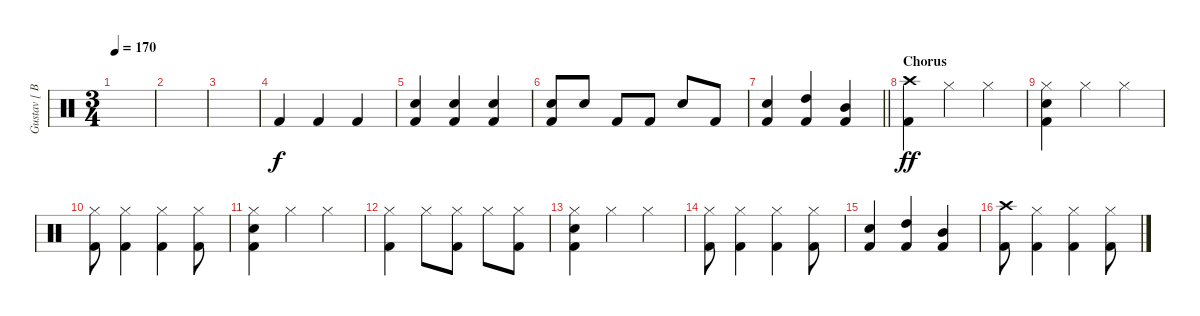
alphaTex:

\track ("Gustav [ Batterie ]" "Gustav [ B") {instrument percussion}
\staff {score}
\articulation defaults
\ts (3 4)
\tempo 170
\clef neutral
\ks c
|
|
|
"Kick (hit) 2".4{dy f volume 16} "Kick (hit) 2".4 "Kick (hit) 2".4 |
("Snare (hit) 2" "Kick (hit) 2").4 ("Snare (hit) 2" "Kick (hit) 2").4 ("Snare (hit) 2" "Kick (hit) 2").4 |
("Snare (hit) 2" "Kick (hit) 2").8 "Snare (hit) 2".8 "Kick (hit) 2".8 "Kick (hit) 2".8 "Snare (hit) 2".8 "Kick (hit) 2".8 |
\barLineRight lightlight
("Snare (hit) 2" "Kick (hit) 2").4 ("High Tom (hit)" "Kick (hit) 2").4 ("Mid Tom (hit)" "Kick (hit) 2").4 |
\section ("" "Chorus")
("Crash high (hit)" "Kick (hit) 2").4{dy ff volume 16} "Hi-Hat (closed)".4 "Hi-Hat (closed)".4 |
("Hi-Hat (closed)" "Snare (hit) 2" "Kick (hit) 2").4 "Hi-Hat (closed)".4 "Hi-Hat (closed)".4 |
("Hi-Hat (closed)" "Kick (hit) 2").8 ("Hi-Hat (closed)" "Kick (hit) 2").4 ("Hi-Hat (closed)" "Kick (hit) 2").4 ("Hi-Hat (closed)" "Kick (hit) 2").8 |
("Hi-Hat (closed)" "Snare (hit) 2" "Kick (hit) 2").4 "Hi-Hat (closed)".4 "Hi-Hat (closed)".4 |
("Hi-Hat (closed)" "Kick (hit) 2").4 "Hi-Hat (closed)".8 ("Hi-Hat (closed)" "Kick (hit) 2").8 "Hi-Hat (closed)".8 ("Hi-Hat (closed)" "Kick (hit) 2").8 |
("Hi-Hat (closed)" "Snare (hit) 2" "Kick (hit) 2").4 "Hi-Hat (closed)".4 "Hi-Hat (closed)".4 |
("Hi-Hat (closed)" "Kick (hit) 2").8 ("Hi-Hat (closed)" "Kick (hit) 2").4 ("Hi-Hat (closed)" "Kick (hit) 2").4 ("Hi-Hat (closed)" "Kick (hit) 2").8 |
("Snare (hit) 2" "Kick (hit) 2").4 ("High Tom (hit)" "Kick (hit) 2").4 ("Mid Tom (hit)" "Kick (hit) 2").4 |
("Crash high (hit)" "Kick (hit) 2").8 ("Hi-Hat (closed)" "Kick (hit) 2").4 ("Hi-Hat (closed)" "Kick (hit) 2").4 ("Hi-Hat (closed)" "Kick (hit) 2").8
